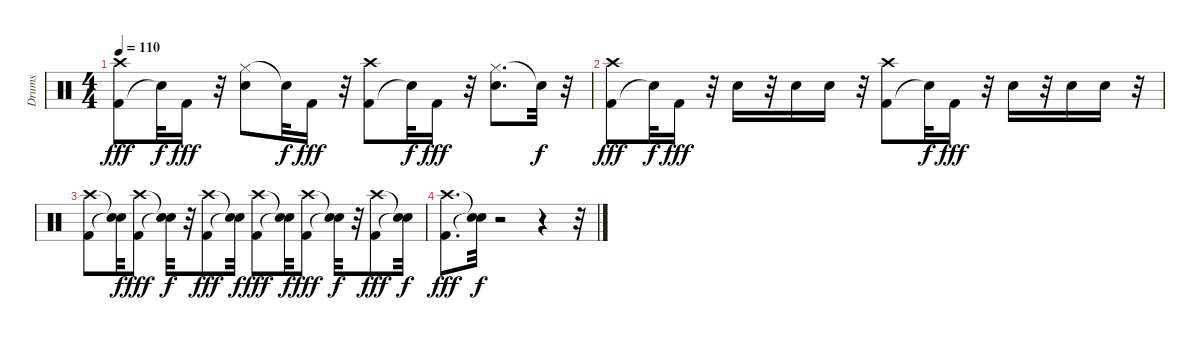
\track ("Drums" "Drums") {instrument percussion}
\staff {score}
\articulation defaults
\ts (4 4)
\tempo 110
\clef neutral
\ks c
("Kick (hit) 2" "Crash high (hit)").8{dy fff} "Snare (hit)"{t}.32{dy f} "Kick (hit) 2".16{dy fff} r.32 ("Hi-Hat (closed)" "Snare (hit) 2").8 "Snare (hit)"{t}.32{dy f} "Kick (hit) 2".16{dy fff} r.32 ("Kick (hit) 2" "Crash high (hit)").8 "Snare (hit)"{t}.32{dy f} "Kick (hit) 2".16{dy fff} r.32 ("Hi-Hat (closed)" "Snare (hit) 2").8{d} "Snare (hit)"{t}.32{dy f} r.32 |
("Kick (hit) 2" "Crash high (hit)").8{dy fff} "Snare (hit)"{t}.32{dy f} "Kick (hit) 2".16{dy fff} r.32 "Snare (hit) 2".16 r.32 "Snare (hit) 2".16 "Snare (hit) 2".16 r.32 ("Kick (hit) 2" "Crash high (hit)").8 "Snare (hit)"{t}.32{dy f} "Kick (hit) 2".16{dy fff} r.32 "Snare (hit) 2".16 r.32 "Snare (hit) 2".16 "Snare (hit) 2".16 r.32 |
("Kick (hit) 2" "Crash high (hit)").8 ("Snare (hit)"{t} "Snare (hit)"{t}).32{dy f} ("Kick (hit) 2" "Crash high (hit)").8{dy fff} ("Snare (hit)"{t} "Snare (hit)"{t}).32{dy f} r.32 ("Kick (hit) 2" "Crash high (hit)").8{dy fff} ("Snare (hit)"{t} "Snare (hit)"{t}).32{dy f} ("Kick (hit) 2" "Crash high (hit)").8{dy fff} ("Snare (hit)"{t} "Snare (hit)"{t}).32{dy f} ("Kick (hit) 2" "Crash high (hit)").8{dy fff} ("Snare (hit)"{t} "Snare (hit)"{t}).32{dy f} r.32 ("Kick (hit) 2" "Crash high (hit)").8{dy fff} ("Snare (hit)"{t} "Snare (hit)"{t}).32{dy f} |
("Kick (hit) 2" "Crash high (hit)").8{d dy fff} ("Snare (hit)"{t} "Snare (hit)"{t}).32{dy f} r.2 r.4 r.32
